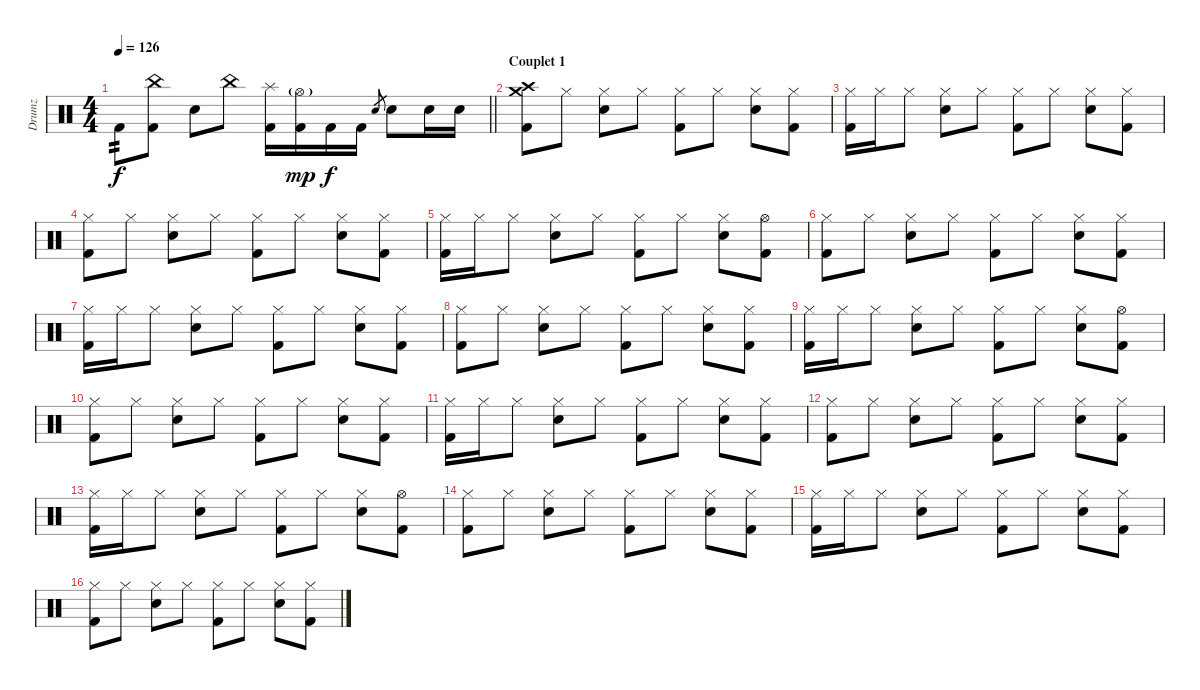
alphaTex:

\track ("Drumz" "Drumz") {instrument percussion}
\staff {score}
\articulation defaults
\ts (4 4)
\tempo 126
\clef neutral
\barLineRight lightlight
\ks c "Kick (hit) 2".8{tp 2 dy f}
("China (hit)" "Kick (hit) 2").8 "Snare (hit) 2".8 "China (hit)".8 ("Splash (hit)" "Kick (hit) 2").16 ("Hi-Hat (open)"{g} "Kick (hit) 2").16{dy mp} "Kick (hit) 2".16{dy f} "Kick (hit) 2".16 "Snare (hit) 2".8{gr} "Snare (hit) 2".8 "Snare (hit) 2".16 "Snare (hit) 2".16 |
\section ("" "Couplet 1")
("Crash medium (hit)" "Crash high (hit)" "Kick (hit) 2").8 "Hi-Hat (closed)".8 ("Hi-Hat (closed)" "Snare (hit) 2").8 "Hi-Hat (closed)".8 ("Hi-Hat (closed)" "Kick (hit) 2").8 "Hi-Hat (closed)".8 ("Hi-Hat (closed)" "Snare (hit) 2").8 ("Hi-Hat (closed)" "Kick (hit) 2").8 |
("Hi-Hat (closed)" "Kick (hit) 2").16 "Hi-Hat (closed)".16 "Hi-Hat (closed)".8 ("Hi-Hat (closed)" "Snare (hit) 2").8 "Hi-Hat (closed)".8 ("Hi-Hat (closed)" "Kick (hit) 2").8 "Hi-Hat (closed)".8 ("Hi-Hat (closed)" "Snare (hit) 2").8 ("Hi-Hat (closed)" "Kick (hit) 2").8 |
("Hi-Hat (closed)" "Kick (hit) 2").8 "Hi-Hat (closed)".8 ("Hi-Hat (closed)" "Snare (hit) 2").8 "Hi-Hat (closed)".8 ("Hi-Hat (closed)" "Kick (hit) 2").8 "Hi-Hat (closed)".8 ("Hi-Hat (closed)" "Snare (hit) 2").8 ("Hi-Hat (closed)" "Kick (hit) 2").8 |
("Hi-Hat (closed)" "Kick (hit) 2").16 "Hi-Hat (closed)".16 "Hi-Hat (closed)".8 ("Hi-Hat (closed)" "Snare (hit) 2").8 "Hi-Hat (closed)".8 ("Hi-Hat (closed)" "Kick (hit) 2").8 "Hi-Hat (closed)".8 ("Hi-Hat (closed)" "Snare (hit) 2").8 ("Hi-Hat (open)" "Kick (hit) 2").8 |
("Hi-Hat (closed)" "Kick (hit) 2").8 "Hi-Hat (closed)".8 ("Hi-Hat (closed)" "Snare (hit) 2").8 "Hi-Hat (closed)".8 ("Hi-Hat (closed)" "Kick (hit) 2").8 "Hi-Hat (closed)".8 ("Hi-Hat (closed)" "Snare (hit) 2").8 ("Hi-Hat (closed)" "Kick (hit) 2").8 |
("Hi-Hat (closed)" "Kick (hit) 2").16 "Hi-Hat (closed)".16 "Hi-Hat (closed)".8 ("Hi-Hat (closed)" "Snare (hit) 2").8 "Hi-Hat (closed)".8 ("Hi-Hat (closed)" "Kick (hit) 2").8 "Hi-Hat (closed)".8 ("Hi-Hat (closed)" "Snare (hit) 2").8 ("Hi-Hat (closed)" "Kick (hit) 2").8 |
("Hi-Hat (closed)" "Kick (hit) 2").8 "Hi-Hat (closed)".8 ("Hi-Hat (closed)" "Snare (hit) 2").8 "Hi-Hat (closed)".8 ("Hi-Hat (closed)" "Kick (hit) 2").8 "Hi-Hat (closed)".8 ("Hi-Hat (closed)" "Snare (hit) 2").8 ("Hi-Hat (closed)" "Kick (hit) 2").8 |
("Hi-Hat (closed)" "Kick (hit) 2").16 "Hi-Hat (closed)".16 "Hi-Hat (closed)".8 ("Hi-Hat (closed)" "Snare (hit) 2").8 "Hi-Hat (closed)".8 ("Hi-Hat (closed)" "Kick (hit) 2").8 "Hi-Hat (closed)".8 ("Hi-Hat (closed)" "Snare (hit) 2").8 ("Hi-Hat (open)" "Kick (hit) 2").8 |
("Hi-Hat (closed)" "Kick (hit) 2").8 "Hi-Hat (closed)".8 ("Hi-Hat (closed)" "Snare (hit) 2").8 "Hi-Hat (closed)".8 ("Hi-Hat (closed)" "Kick (hit) 2").8 "Hi-Hat (closed)".8 ("Hi-Hat (closed)" "Snare (hit) 2").8 ("Hi-Hat (closed)" "Kick (hit) 2").8 |
("Hi-Hat (closed)" "Kick (hit) 2").16 "Hi-Hat (closed)".16 "Hi-Hat (closed)".8 ("Hi-Hat (closed)" "Snare (hit) 2").8 "Hi-Hat (closed)".8 ("Hi-Hat (closed)" "Kick (hit) 2").8 "Hi-Hat (closed)".8 ("Hi-Hat (closed)" "Snare (hit) 2").8 ("Hi-Hat (closed)" "Kick (hit) 2").8 |
("Hi-Hat (closed)" "Kick (hit) 2").8 "Hi-Hat (closed)".8 ("Hi-Hat (closed)" "Snare (hit) 2").8 "Hi-Hat (closed)".8 ("Hi-Hat (closed)" "Kick (hit) 2").8 "Hi-Hat (closed)".8 ("Hi-Hat (closed)" "Snare (hit) 2").8 ("Hi-Hat (closed)" "Kick (hit) 2").8 |
("Hi-Hat (closed)" "Kick (hit) 2").16 "Hi-Hat (closed)".16 "Hi-Hat (closed)".8 ("Hi-Hat (closed)" "Snare (hit) 2").8 "Hi-Hat (closed)".8 ("Hi-Hat (closed)" "Kick (hit) 2").8 "Hi-Hat (closed)".8 ("Hi-Hat (closed)" "Snare (hit) 2").8 ("Hi-Hat (open)" "Kick (hit) 2").8 |
("Hi-Hat (closed)" "Kick (hit) 2").8 "Hi-Hat (closed)".8 ("Hi-Hat (closed)" "Snare (hit) 2").8 "Hi-Hat (closed)".8 ("Hi-Hat (closed)" "Kick (hit) 2").8 "Hi-Hat (closed)".8 ("Hi-Hat (closed)" "Snare (hit) 2").8 ("Hi-Hat (closed)" "Kick (hit) 2").8 |
("Hi-Hat (closed)" "Kick (hit) 2").16 "Hi-Hat (closed)".16 "Hi-Hat (closed)".8 ("Hi-Hat (closed)" "Snare (hit) 2").8 "Hi-Hat (closed)".8 ("Hi-Hat (closed)" "Kick (hit) 2").8 "Hi-Hat (closed)".8 ("Hi-Hat (closed)" "Snare (hit) 2").8 ("Hi-Hat (closed)" "Kick (hit) 2").8 |
("Hi-Hat (closed)" "Kick (hit) 2").8 "Hi-Hat (closed)".8 ("Hi-Hat (closed)" "Snare (hit) 2").8 "Hi-Hat (closed)".8 ("Hi-Hat (closed)" "Kick (hit) 2").8 "Hi-Hat (closed)".8 ("Hi-Hat (closed)" "Snare (hit) 2").8 ("Hi-Hat (closed)" "Kick (hit) 2").8
